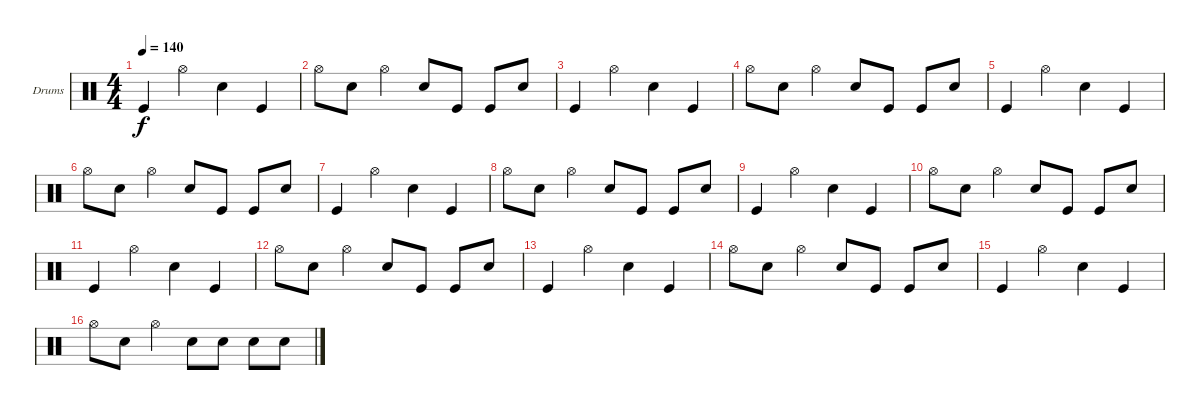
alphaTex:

\bracketExtendMode groupsimilarinstruments
\firstSystemTrackNameOrientation horizontal
\otherSystemsTrackNameOrientation horizontal
\track ("Batterie - Anders Johansson" "Drums") {instrument percussion}
\staff {score}
\articulation defaults
\ts (4 4)
\tempo 140
\clef neutral
\ks c "Kick (hit)".4{dy f} "Hi-Hat (open)".4 "Snare (hit) 2".4 "Kick (hit)".4
|
"Hi-Hat (open)".8 "Snare (hit) 2".8 "Hi-Hat (open)".4 "Snare (hit) 2".8 "Kick (hit)".8 "Kick (hit)".8 "Snare (hit) 2".8 |
"Kick (hit)".4 "Hi-Hat (open)".4 "Snare (hit) 2".4 "Kick (hit)".4 |
"Hi-Hat (open)".8 "Snare (hit) 2".8 "Hi-Hat (open)".4 "Snare (hit) 2".8 "Kick (hit)".8 "Kick (hit)".8 "Snare (hit) 2".8 |
"Kick (hit)".4 "Hi-Hat (open)".4 "Snare (hit) 2".4 "Kick (hit)".4 |
"Hi-Hat (open)".8 "Snare (hit) 2".8 "Hi-Hat (open)".4 "Snare (hit) 2".8 "Kick (hit)".8 "Kick (hit)".8 "Snare (hit) 2".8 |
"Kick (hit)".4 "Hi-Hat (open)".4 "Snare (hit) 2".4 "Kick (hit)".4 |
"Hi-Hat (open)".8 "Snare (hit) 2".8 "Hi-Hat (open)".4 "Snare (hit) 2".8 "Kick (hit)".8 "Kick (hit)".8 "Snare (hit) 2".8 |
"Kick (hit)".4 "Hi-Hat (open)".4 "Snare (hit) 2".4 "Kick (hit)".4 |
"Hi-Hat (open)".8 "Snare (hit) 2".8 "Hi-Hat (open)".4 "Snare (hit) 2".8 "Kick (hit)".8 "Kick (hit)".8 "Snare (hit) 2".8 |
"Kick (hit)".4 "Hi-Hat (open)".4 "Snare (hit) 2".4 "Kick (hit)".4 |
"Hi-Hat (open)".8 "Snare (hit) 2".8 "Hi-Hat (open)".4 "Snare (hit) 2".8 "Kick (hit)".8 "Kick (hit)".8 "Snare (hit) 2".8 |
"Kick (hit)".4 "Hi-Hat (open)".4 "Snare (hit) 2".4 "Kick (hit)".4 |
"Hi-Hat (open)".8 "Snare (hit) 2".8 "Hi-Hat (open)".4 "Snare (hit) 2".8 "Kick (hit)".8 "Kick (hit)".8 "Snare (hit) 2".8 |
"Kick (hit)".4 "Hi-Hat (open)".4 "Snare (hit) 2".4 "Kick (hit)".4 |
"Hi-Hat (open)".8 "Snare (hit) 2".8 "Hi-Hat (open)".4 "Snare (hit) 2".8 "Snare (hit) 2".8 "Snare (hit) 2".8 "Snare (hit) 2".8
